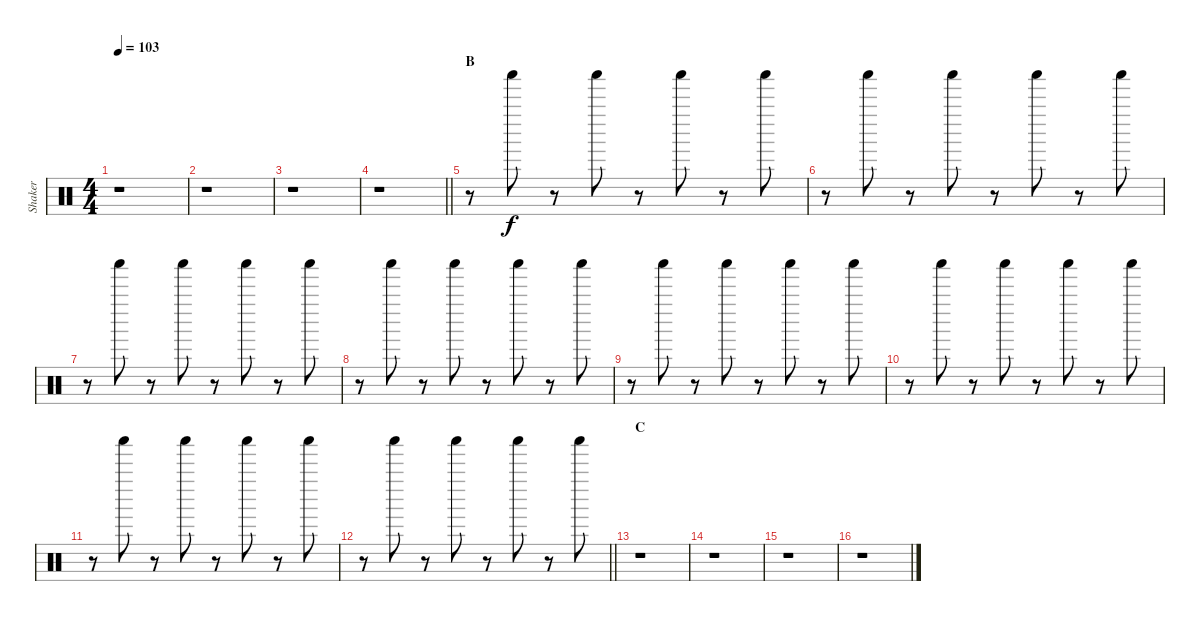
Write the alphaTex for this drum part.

\track ("Shaker" "Shaker") {instrument percussion}
\staff {score}
\articulation defaults
\ts (4 4)
\tempo 103
\clef neutral
\ks c
r.1{dy f} |
r.1 |
r.1 |
\barLineRight lightlight
r.1 |
\section ("" "B")
r.8 "Shaker (hit)".8 r.8 "Shaker (hit)".8 r.8 "Shaker (hit)".8 r.8 "Shaker (hit)".8 |
r.8 "Shaker (hit)".8 r.8 "Shaker (hit)".8 r.8 "Shaker (hit)".8 r.8 "Shaker (hit)".8 |
r.8 "Shaker (hit)".8 r.8 "Shaker (hit)".8 r.8 "Shaker (hit)".8 r.8 "Shaker (hit)".8 |
r.8 "Shaker (hit)".8 r.8 "Shaker (hit)".8 r.8 "Shaker (hit)".8 r.8 "Shaker (hit)".8 |
r.8 "Shaker (hit)".8 r.8 "Shaker (hit)".8 r.8 "Shaker (hit)".8 r.8 "Shaker (hit)".8 |
r.8 "Shaker (hit)".8 r.8 "Shaker (hit)".8 r.8 "Shaker (hit)".8 r.8 "Shaker (hit)".8 |
r.8 "Shaker (hit)".8 r.8 "Shaker (hit)".8 r.8 "Shaker (hit)".8 r.8 "Shaker (hit)".8 |
\barLineRight lightlight
r.8 "Shaker (hit)".8 r.8 "Shaker (hit)".8 r.8 "Shaker (hit)".8 r.8 "Shaker (hit)".8 |
\section ("" "C")
r.1 |
r.1 |
r.1 |
r.1
